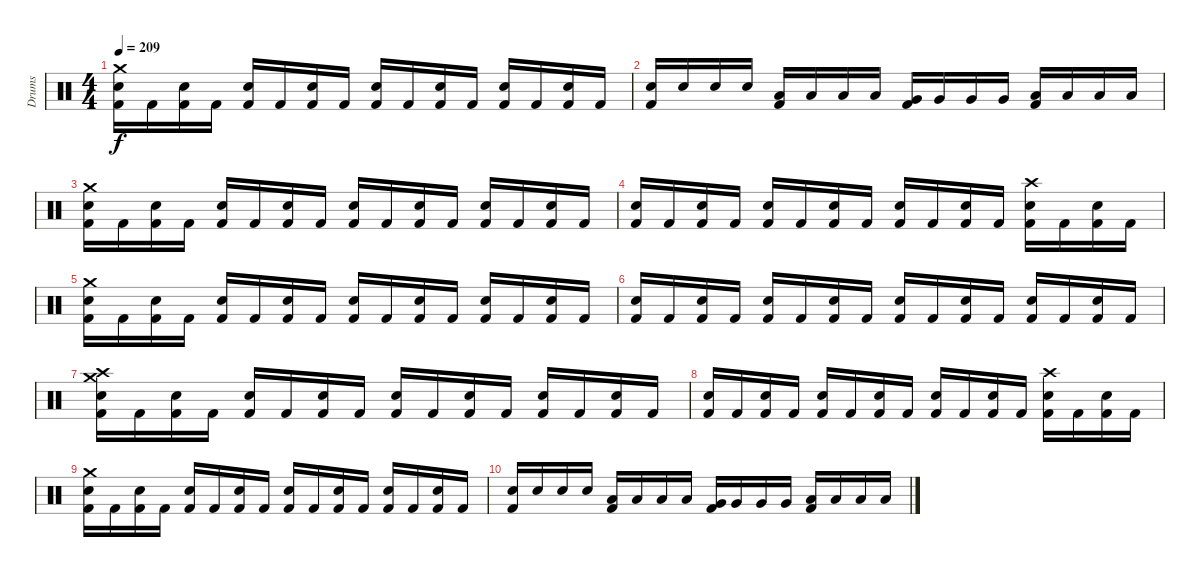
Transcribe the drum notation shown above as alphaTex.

\track ("Drums" "Drums") {instrument percussion}
\staff {score}
\articulation defaults
\ts (4 4)
\tempo 209
\clef neutral
\ks c
("Kick (hit) 2" "Snare (hit) 2" "Crash medium (hit)").16{dy f} "Kick (hit) 2".16 ("Kick (hit) 2" "Snare (hit) 2").16 "Kick (hit) 2".16 ("Kick (hit) 2" "Snare (hit) 2").16 "Kick (hit) 2".16 ("Kick (hit) 2" "Snare (hit) 2").16 "Kick (hit) 2".16 ("Kick (hit) 2" "Snare (hit) 2").16 "Kick (hit) 2".16 ("Kick (hit) 2" "Snare (hit) 2").16 "Kick (hit) 2".16 ("Kick (hit) 2" "Snare (hit) 2").16 "Kick (hit) 2".16 ("Kick (hit) 2" "Snare (hit) 2").16 "Kick (hit) 2".16 |
("Kick (hit) 2" "Snare (hit) 2").16 "Snare (hit) 2".16 "Snare (hit) 2".16 "Snare (hit) 2".16 ("Kick (hit) 2" "Low Tom (hit)").16 "Low Tom (hit)".16 "Low Tom (hit)".16 "Low Tom (hit)".16 ("Kick (hit) 2" "Very Low Tom (hit)").16 "Very Low Tom (hit)".16 "Very Low Tom (hit)".16 "Very Low Tom (hit)".16 ("Kick (hit) 2" "Low Floor Tom (hit)").16 "Low Floor Tom (hit)".16 "Low Floor Tom (hit)".16 "Low Floor Tom (hit)".16 |
("Kick (hit) 2" "Snare (hit) 2" "Crash medium (hit)").16 "Kick (hit) 2".16 ("Kick (hit) 2" "Snare (hit) 2").16 "Kick (hit) 2".16 ("Kick (hit) 2" "Snare (hit) 2").16 "Kick (hit) 2".16 ("Kick (hit) 2" "Snare (hit) 2").16 "Kick (hit) 2".16 ("Kick (hit) 2" "Snare (hit) 2").16 "Kick (hit) 2".16 ("Kick (hit) 2" "Snare (hit) 2").16 "Kick (hit) 2".16 ("Kick (hit) 2" "Snare (hit) 2").16 "Kick (hit) 2".16 ("Kick (hit) 2" "Snare (hit) 2").16 "Kick (hit) 2".16 |
("Kick (hit) 2" "Snare (hit) 2").16 "Kick (hit) 2".16 ("Kick (hit) 2" "Snare (hit) 2").16 "Kick (hit) 2".16 ("Kick (hit) 2" "Snare (hit) 2").16 "Kick (hit) 2".16 ("Kick (hit) 2" "Snare (hit) 2").16 "Kick (hit) 2".16 ("Kick (hit) 2" "Snare (hit) 2").16 "Kick (hit) 2".16 ("Kick (hit) 2" "Snare (hit) 2").16 "Kick (hit) 2".16 ("Kick (hit) 2" "Snare (hit) 2" "Crash high (hit)").16 "Kick (hit) 2".16 ("Kick (hit) 2" "Snare (hit) 2").16 "Kick (hit) 2".16 |
("Kick (hit) 2" "Snare (hit) 2" "Crash medium (hit)").16 "Kick (hit) 2".16 ("Kick (hit) 2" "Snare (hit) 2").16 "Kick (hit) 2".16 ("Kick (hit) 2" "Snare (hit) 2").16 "Kick (hit) 2".16 ("Kick (hit) 2" "Snare (hit) 2").16 "Kick (hit) 2".16 ("Kick (hit) 2" "Snare (hit) 2").16 "Kick (hit) 2".16 ("Kick (hit) 2" "Snare (hit) 2").16 "Kick (hit) 2".16 ("Kick (hit) 2" "Snare (hit) 2").16 "Kick (hit) 2".16 ("Kick (hit) 2" "Snare (hit) 2").16 "Kick (hit) 2".16 |
("Kick (hit) 2" "Snare (hit) 2").16 "Kick (hit) 2".16 ("Kick (hit) 2" "Snare (hit) 2").16 "Kick (hit) 2".16 ("Kick (hit) 2" "Snare (hit) 2").16 "Kick (hit) 2".16 ("Kick (hit) 2" "Snare (hit) 2").16 "Kick (hit) 2".16 ("Kick (hit) 2" "Snare (hit) 2").16 "Kick (hit) 2".16 ("Kick (hit) 2" "Snare (hit) 2").16 "Kick (hit) 2".16 ("Kick (hit) 2" "Snare (hit) 2").16 "Kick (hit) 2".16 ("Kick (hit) 2" "Snare (hit) 2").16 "Kick (hit) 2".16 |
("Kick (hit) 2" "Snare (hit) 2" "Crash high (hit)" "Crash medium (hit)").16 "Kick (hit) 2".16 ("Kick (hit) 2" "Snare (hit) 2").16 "Kick (hit) 2".16 ("Kick (hit) 2" "Snare (hit) 2").16 "Kick (hit) 2".16 ("Kick (hit) 2" "Snare (hit) 2").16 "Kick (hit) 2".16 ("Kick (hit) 2" "Snare (hit) 2").16 "Kick (hit) 2".16 ("Kick (hit) 2" "Snare (hit) 2").16 "Kick (hit) 2".16 ("Kick (hit) 2" "Snare (hit) 2").16 "Kick (hit) 2".16 ("Kick (hit) 2" "Snare (hit) 2").16 "Kick (hit) 2".16 |
("Kick (hit) 2" "Snare (hit) 2").16 "Kick (hit) 2".16 ("Kick (hit) 2" "Snare (hit) 2").16 "Kick (hit) 2".16 ("Kick (hit) 2" "Snare (hit) 2").16 "Kick (hit) 2".16 ("Kick (hit) 2" "Snare (hit) 2").16 "Kick (hit) 2".16 ("Kick (hit) 2" "Snare (hit) 2").16 "Kick (hit) 2".16 ("Kick (hit) 2" "Snare (hit) 2").16 "Kick (hit) 2".16 ("Kick (hit) 2" "Snare (hit) 2" "Crash high (hit)").16 "Kick (hit) 2".16 ("Kick (hit) 2" "Snare (hit) 2").16 "Kick (hit) 2".16 |
("Kick (hit) 2" "Snare (hit) 2" "Crash medium (hit)").16 "Kick (hit) 2".16 ("Kick (hit) 2" "Snare (hit) 2").16 "Kick (hit) 2".16 ("Kick (hit) 2" "Snare (hit) 2").16 "Kick (hit) 2".16 ("Kick (hit) 2" "Snare (hit) 2").16 "Kick (hit) 2".16 ("Kick (hit) 2" "Snare (hit) 2").16 "Kick (hit) 2".16 ("Kick (hit) 2" "Snare (hit) 2").16 "Kick (hit) 2".16 ("Kick (hit) 2" "Snare (hit) 2").16 "Kick (hit) 2".16 ("Kick (hit) 2" "Snare (hit) 2").16 "Kick (hit) 2".16 |
("Kick (hit) 2" "Snare (hit) 2").16 "Snare (hit) 2".16 "Snare (hit) 2".16 "Snare (hit) 2".16 ("Kick (hit) 2" "Low Tom (hit)").16 "Low Tom (hit)".16 "Low Tom (hit)".16 "Low Tom (hit)".16 ("Kick (hit) 2" "Very Low Tom (hit)").16 "Very Low Tom (hit)".16 "Very Low Tom (hit)".16 "Very Low Tom (hit)".16 ("Kick (hit) 2" "Low Floor Tom (hit)").16 "Low Floor Tom (hit)".16 "Low Floor Tom (hit)".16 "Low Floor Tom (hit)".16
